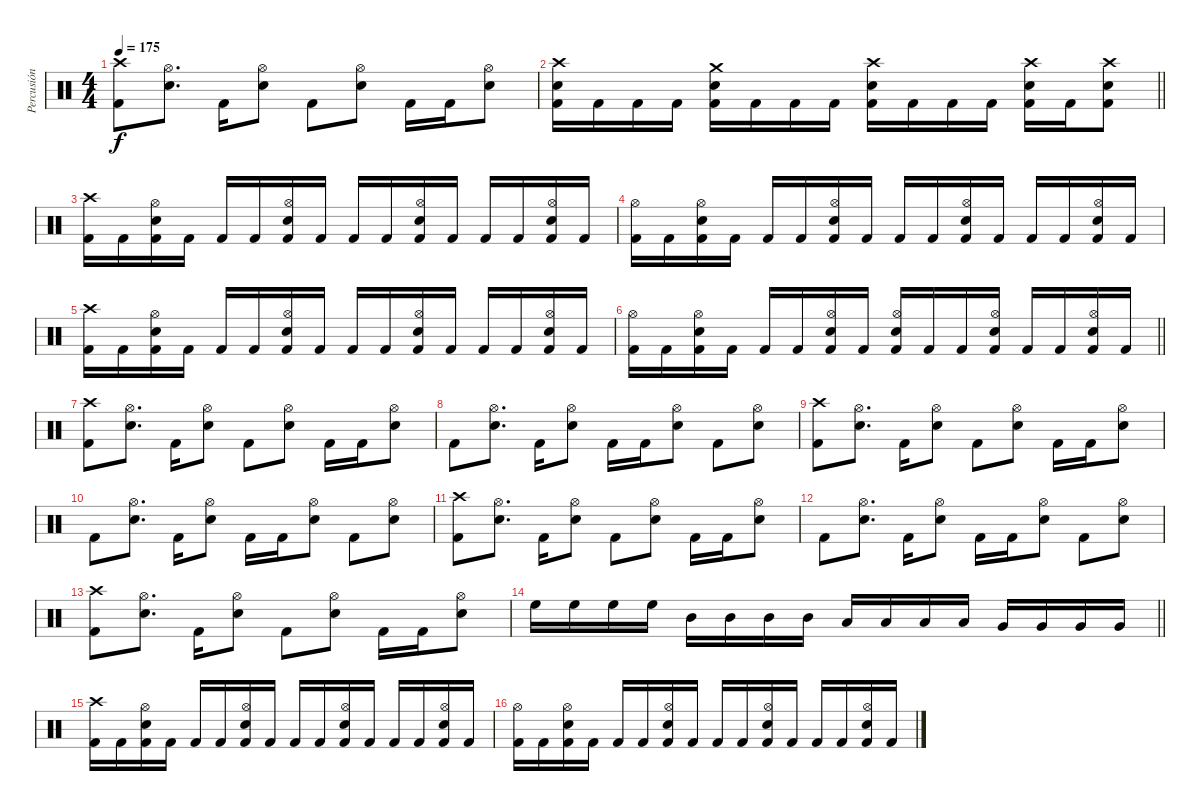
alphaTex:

\track ("Percusión" "Percusión") {instrument percussion}
\staff {score}
\articulation defaults
\ts (4 4)
\tempo 175
\clef neutral
\ks c
("Crash high (hit)" "Kick (hit) 2").8{dy f} ("Hi-Hat (open)" "Electric Snare (hit)").8{d} "Kick (hit) 2".16 ("Hi-Hat (open)" "Electric Snare (hit)").8 "Kick (hit) 2".8 ("Hi-Hat (open)" "Electric Snare (hit)").8 "Kick (hit) 2".16 "Kick (hit) 2".16 ("Hi-Hat (open)" "Electric Snare (hit)").8 |
\barLineRight lightlight
("Crash high (hit)" "Electric Snare (hit)" "Kick (hit) 2").16 "Kick (hit) 2".16 "Kick (hit) 2".16 "Kick (hit) 2".16 ("Crash medium (hit)" "Electric Snare (hit)" "Kick (hit) 2").16 "Kick (hit) 2".16 "Kick (hit) 2".16 "Kick (hit) 2".16 ("Crash high (hit)" "Electric Snare (hit)" "Kick (hit) 2").16 "Kick (hit) 2".16 "Kick (hit) 2".16 "Kick (hit) 2".16 ("Crash high (hit)" "Electric Snare (hit)" "Kick (hit) 2").16 "Kick (hit) 2".16 ("Crash high (hit)" "Electric Snare (hit)" "Kick (hit) 2").8 |
("Crash high (hit)" "Kick (hit) 2").16 "Kick (hit) 2".16 ("Hi-Hat (open)" "Electric Snare (hit)" "Kick (hit) 2").16 "Kick (hit) 2".16 "Kick (hit) 2".16 "Kick (hit) 2".16 ("Hi-Hat (open)" "Electric Snare (hit)" "Kick (hit) 2").16 "Kick (hit) 2".16 "Kick (hit) 2".16 "Kick (hit) 2".16 ("Hi-Hat (open)" "Electric Snare (hit)" "Kick (hit) 2").16 "Kick (hit) 2".16 "Kick (hit) 2".16 "Kick (hit) 2".16 ("Hi-Hat (open)" "Electric Snare (hit)" "Kick (hit) 2").16 "Kick (hit) 2".16 |
("Hi-Hat (open)" "Kick (hit) 2").16 "Kick (hit) 2".16 ("Hi-Hat (open)" "Electric Snare (hit)" "Kick (hit) 2").16 "Kick (hit) 2".16 "Kick (hit) 2".16 "Kick (hit) 2".16 ("Hi-Hat (open)" "Electric Snare (hit)" "Kick (hit) 2").16 "Kick (hit) 2".16 "Kick (hit) 2".16 "Kick (hit) 2".16 ("Hi-Hat (open)" "Electric Snare (hit)" "Kick (hit) 2").16 "Kick (hit) 2".16 "Kick (hit) 2".16 "Kick (hit) 2".16 ("Hi-Hat (open)" "Electric Snare (hit)" "Kick (hit) 2").16 "Kick (hit) 2".16 |
("Crash high (hit)" "Kick (hit) 2").16 "Kick (hit) 2".16 ("Hi-Hat (open)" "Electric Snare (hit)" "Kick (hit) 2").16 "Kick (hit) 2".16 "Kick (hit) 2".16 "Kick (hit) 2".16 ("Hi-Hat (open)" "Electric Snare (hit)" "Kick (hit) 2").16 "Kick (hit) 2".16 "Kick (hit) 2".16 "Kick (hit) 2".16 ("Hi-Hat (open)" "Electric Snare (hit)" "Kick (hit) 2").16 "Kick (hit) 2".16 "Kick (hit) 2".16 "Kick (hit) 2".16 ("Hi-Hat (open)" "Electric Snare (hit)" "Kick (hit) 2").16 "Kick (hit) 2".16 |
\barLineRight lightlight
("Hi-Hat (open)" "Kick (hit) 2").16 "Kick (hit) 2".16 ("Hi-Hat (open)" "Electric Snare (hit)" "Kick (hit) 2").16 "Kick (hit) 2".16 "Kick (hit) 2".16 "Kick (hit) 2".16 ("Hi-Hat (open)" "Electric Snare (hit)" "Kick (hit) 2").16 "Kick (hit) 2".16 ("Hi-Hat (open)" "Electric Snare (hit)" "Kick (hit) 2").16 "Kick (hit) 2".16 "Kick (hit) 2".16 ("Hi-Hat (open)" "Electric Snare (hit)" "Kick (hit) 2").16 "Kick (hit) 2".16 "Kick (hit) 2".16 ("Hi-Hat (open)" "Electric Snare (hit)" "Kick (hit) 2").16 "Kick (hit) 2".16 |
("Crash high (hit)" "Kick (hit) 2").8 ("Hi-Hat (open)" "Electric Snare (hit)").8{d} "Kick (hit) 2".16 ("Hi-Hat (open)" "Electric Snare (hit)").8 "Kick (hit) 2".8 ("Hi-Hat (open)" "Electric Snare (hit)").8 "Kick (hit) 2".16 "Kick (hit) 2".16 ("Hi-Hat (open)" "Electric Snare (hit)").8 |
"Kick (hit) 2".8 ("Hi-Hat (open)" "Electric Snare (hit)").8{d} "Kick (hit) 2".16 ("Hi-Hat (open)" "Electric Snare (hit)").8 "Kick (hit) 2".16 "Kick (hit) 2".16 ("Hi-Hat (open)" "Electric Snare (hit)").8 "Kick (hit) 2".8 ("Hi-Hat (open)" "Electric Snare (hit)").8 |
("Crash high (hit)" "Kick (hit) 2").8 ("Hi-Hat (open)" "Electric Snare (hit)").8{d} "Kick (hit) 2".16 ("Hi-Hat (open)" "Electric Snare (hit)").8 "Kick (hit) 2".8 ("Hi-Hat (open)" "Electric Snare (hit)").8 "Kick (hit) 2".16 "Kick (hit) 2".16 ("Hi-Hat (open)" "Electric Snare (hit)").8 |
"Kick (hit) 2".8 ("Hi-Hat (open)" "Electric Snare (hit)").8{d} "Kick (hit) 2".16 ("Hi-Hat (open)" "Electric Snare (hit)").8 "Kick (hit) 2".16 "Kick (hit) 2".16 ("Hi-Hat (open)" "Electric Snare (hit)").8 "Kick (hit) 2".8 ("Hi-Hat (open)" "Electric Snare (hit)").8 |
("Crash high (hit)" "Kick (hit) 2").8 ("Hi-Hat (open)" "Electric Snare (hit)").8{d} "Kick (hit) 2".16 ("Hi-Hat (open)" "Electric Snare (hit)").8 "Kick (hit) 2".8 ("Hi-Hat (open)" "Electric Snare (hit)").8 "Kick (hit) 2".16 "Kick (hit) 2".16 ("Hi-Hat (open)" "Electric Snare (hit)").8 |
"Kick (hit) 2".8 ("Hi-Hat (open)" "Electric Snare (hit)").8{d} "Kick (hit) 2".16 ("Hi-Hat (open)" "Electric Snare (hit)").8 "Kick (hit) 2".16 "Kick (hit) 2".16 ("Hi-Hat (open)" "Electric Snare (hit)").8 "Kick (hit) 2".8 ("Hi-Hat (open)" "Electric Snare (hit)").8 |
("Crash high (hit)" "Kick (hit) 2").8 ("Hi-Hat (open)" "Electric Snare (hit)").8{d} "Kick (hit) 2".16 ("Hi-Hat (open)" "Electric Snare (hit)").8 "Kick (hit) 2".8 ("Hi-Hat (open)" "Electric Snare (hit)").8 "Kick (hit) 2".16 "Kick (hit) 2".16 ("Hi-Hat (open)" "Electric Snare (hit)").8 |
\barLineRight lightlight "High Floor Tom (hit)".16 "High Floor Tom (hit)".16 "High Floor Tom (hit)".16 "High Floor Tom (hit)".16 "Mid Tom (hit)".16 "Mid Tom (hit)".16 "Mid Tom (hit)".16 "Mid Tom (hit)".16 "Low Floor Tom (hit)".16 "Low Floor Tom (hit)".16 "Low Floor Tom (hit)".16 "Low Floor Tom (hit)".16 "Very Low Tom (hit)".16 "Very Low Tom (hit)".16 "Very Low Tom (hit)".16 "Very Low Tom (hit)".16
|
("Crash high (hit)" "Kick (hit) 2").16 "Kick (hit) 2".16 ("Hi-Hat (open)" "Electric Snare (hit)" "Kick (hit) 2").16 "Kick (hit) 2".16 "Kick (hit) 2".16 "Kick (hit) 2".16 ("Hi-Hat (open)" "Electric Snare (hit)" "Kick (hit) 2").16 "Kick (hit) 2".16 "Kick (hit) 2".16 "Kick (hit) 2".16 ("Hi-Hat (open)" "Electric Snare (hit)" "Kick (hit) 2").16 "Kick (hit) 2".16 "Kick (hit) 2".16 "Kick (hit) 2".16 ("Hi-Hat (open)" "Electric Snare (hit)" "Kick (hit) 2").16 "Kick (hit) 2".16 |
("Hi-Hat (open)" "Kick (hit) 2").16 "Kick (hit) 2".16 ("Hi-Hat (open)" "Electric Snare (hit)" "Kick (hit) 2").16 "Kick (hit) 2".16 "Kick (hit) 2".16 "Kick (hit) 2".16 ("Hi-Hat (open)" "Electric Snare (hit)" "Kick (hit) 2").16 "Kick (hit) 2".16 "Kick (hit) 2".16 "Kick (hit) 2".16 ("Hi-Hat (open)" "Electric Snare (hit)" "Kick (hit) 2").16 "Kick (hit) 2".16 "Kick (hit) 2".16 "Kick (hit) 2".16 ("Hi-Hat (open)" "Electric Snare (hit)" "Kick (hit) 2").16 "Kick (hit) 2".16
